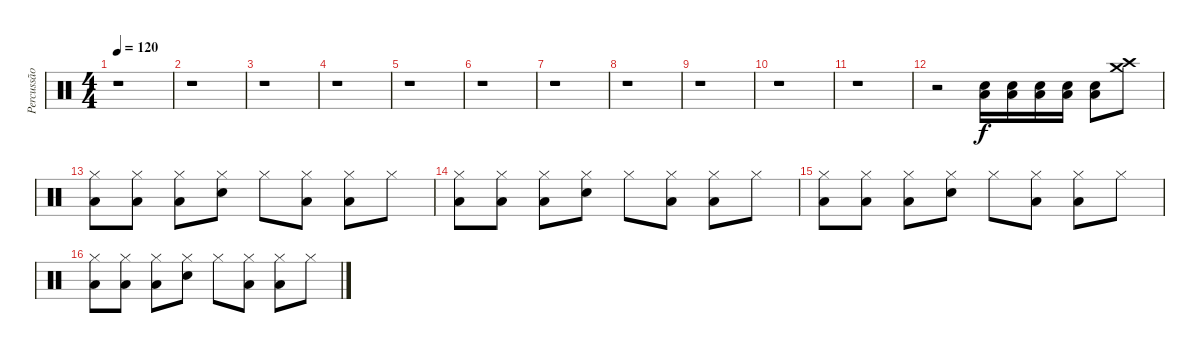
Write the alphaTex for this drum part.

\track ("Percussão" "Percussão") {instrument percussion}
\staff {score}
\articulation defaults
\ts (4 4)
\tempo 120
\clef neutral
\ks c
r.1{dy f} |
r.1 |
r.1 |
r.1 |
r.1 |
r.1 |
r.1 |
r.1 |
r.1 |
r.1 |
r.1 |
r.2 ("Low Tom (hit)" "Electric Snare (hit)").16 ("Low Tom (hit)" "Electric Snare (hit)").16 ("Low Tom (hit)" "Electric Snare (hit)").16 ("Low Tom (hit)" "Electric Snare (hit)").16 ("Low Tom (hit)" "Electric Snare (hit)").8 ("Crash high (hit)" "Crash medium (hit)").8 |
("Low Floor Tom (hit)" "Hi-Hat (closed)").8 ("Low Floor Tom (hit)" "Hi-Hat (closed)").8 ("Low Floor Tom (hit)" "Hi-Hat (closed)").8 ("Snare (hit) 2" "Hi-Hat (closed)").8 "Hi-Hat (closed)".8 ("Low Floor Tom (hit)" "Hi-Hat (closed)").8 ("Low Floor Tom (hit)" "Hi-Hat (closed)").8 "Hi-Hat (closed)".8 |
("Low Floor Tom (hit)" "Hi-Hat (closed)").8 ("Low Floor Tom (hit)" "Hi-Hat (closed)").8 ("Low Floor Tom (hit)" "Hi-Hat (closed)").8 ("Snare (hit) 2" "Hi-Hat (closed)").8 "Hi-Hat (closed)".8 ("Low Floor Tom (hit)" "Hi-Hat (closed)").8 ("Low Floor Tom (hit)" "Hi-Hat (closed)").8 "Hi-Hat (closed)".8 |
("Low Floor Tom (hit)" "Hi-Hat (closed)").8 ("Low Floor Tom (hit)" "Hi-Hat (closed)").8 ("Low Floor Tom (hit)" "Hi-Hat (closed)").8 ("Snare (hit) 2" "Hi-Hat (closed)").8 "Hi-Hat (closed)".8 ("Low Floor Tom (hit)" "Hi-Hat (closed)").8 ("Low Floor Tom (hit)" "Hi-Hat (closed)").8 "Hi-Hat (closed)".8 |
("Low Floor Tom (hit)" "Hi-Hat (closed)").8 ("Low Floor Tom (hit)" "Hi-Hat (closed)").8 ("Low Floor Tom (hit)" "Hi-Hat (closed)").8 ("Snare (hit) 2" "Hi-Hat (closed)").8 "Hi-Hat (closed)".8 ("Low Floor Tom (hit)" "Hi-Hat (closed)").8 ("Low Floor Tom (hit)" "Hi-Hat (closed)").8 "Hi-Hat (closed)".8
